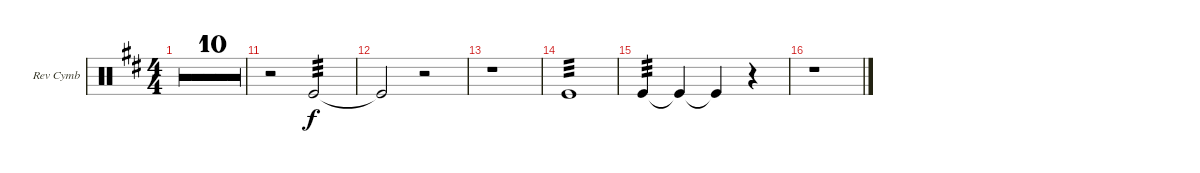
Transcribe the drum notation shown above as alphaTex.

\defaultSystemsLayout 4
\bracketExtendMode groupsimilarinstruments
\firstSystemTrackNameOrientation horizontal
\otherSystemsTrackNameOrientation horizontal
\track ("Reverse Cymbal" "Rev Cymb") {multiBarRest instrument percussion}
\staff {score}
\articulation defaults
\ts (4 4)
\tempo 84
\clef neutral
\ks bminor
r.1{dy f} |
r.1 |
r.1 |
r.1 |
r.1 |
r.1 |
r.1 |
r.1 |
r.1 |
r.1 |
r.2 "Kick (hit)".2{tp 3} |
"Kick (hit)"{t}.2 r.2 |
r.1 |
"Kick (hit)".1{tp 3} |
"Kick (hit)".4{tp 3} "Kick (hit)"{t}.4 "Kick (hit)"{t}.4 r.4 |
r.1
